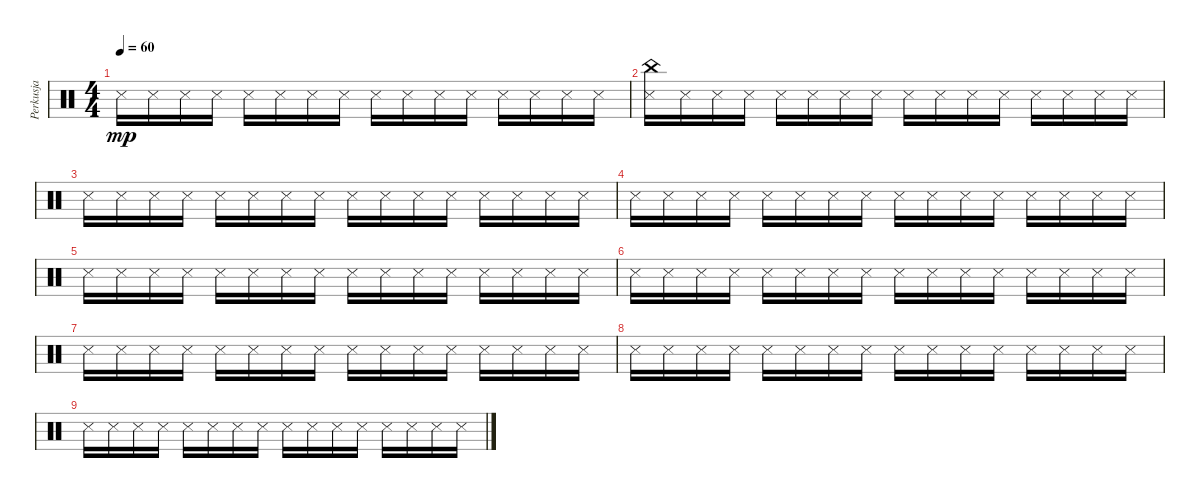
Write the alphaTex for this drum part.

\track ("Perkusja" "Perkusja") {instrument percussion}
\staff {score}
\articulation defaults
\ts (4 4)
\tempo 60
\clef neutral
\ks c "Metronome (hit)".16{dy mp} "Snare (side stick) 3".16 "Metronome (hit)".16 "Snare (side stick) 3".16 "Metronome (hit)".16 "Snare (side stick) 3".16 "Metronome (hit)".16 "Snare (side stick) 3".16 "Metronome (hit)".16 "Snare (side stick) 3".16 "Metronome (hit)".16 "Snare (side stick) 3".16 "Metronome (hit)".16 "Snare (side stick) 3".16 "Metronome (hit)".16 "Snare (side stick) 3".16
|
("Metronome (hit)" "China (hit)").16 "Snare (side stick) 3".16 "Metronome (hit)".16 "Snare (side stick) 3".16 "Metronome (hit)".16 "Snare (side stick) 3".16 "Metronome (hit)".16 "Snare (side stick) 3".16 "Metronome (hit)".16 "Snare (side stick) 3".16 "Metronome (hit)".16 "Snare (side stick) 3".16 "Metronome (hit)".16 "Snare (side stick) 3".16 "Metronome (hit)".16 "Snare (side stick) 3".16 |
"Metronome (hit)".16 "Snare (side stick) 3".16 "Metronome (hit)".16 "Snare (side stick) 3".16 "Metronome (hit)".16 "Snare (side stick) 3".16 "Metronome (hit)".16 "Snare (side stick) 3".16 "Metronome (hit)".16 "Snare (side stick) 3".16 "Metronome (hit)".16 "Snare (side stick) 3".16 "Metronome (hit)".16 "Snare (side stick) 3".16 "Metronome (hit)".16 "Snare (side stick) 3".16 |
"Metronome (hit)".16 "Snare (side stick) 3".16 "Metronome (hit)".16 "Snare (side stick) 3".16 "Metronome (hit)".16 "Snare (side stick) 3".16 "Metronome (hit)".16 "Snare (side stick) 3".16 "Metronome (hit)".16 "Snare (side stick) 3".16 "Metronome (hit)".16 "Snare (side stick) 3".16 "Metronome (hit)".16 "Snare (side stick) 3".16 "Metronome (hit)".16 "Snare (side stick) 3".16 |
"Metronome (hit)".16{volume 0} "Snare (side stick) 3".16 "Metronome (hit)".16 "Snare (side stick) 3".16 "Metronome (hit)".16 "Snare (side stick) 3".16 "Metronome (hit)".16 "Snare (side stick) 3".16 "Metronome (hit)".16 "Snare (side stick) 3".16 "Metronome (hit)".16 "Snare (side stick) 3".16 "Metronome (hit)".16 "Snare (side stick) 3".16 "Metronome (hit)".16 "Snare (side stick) 3".16 |
"Metronome (hit)".16 "Snare (side stick) 3".16 "Metronome (hit)".16 "Snare (side stick) 3".16 "Metronome (hit)".16 "Snare (side stick) 3".16 "Metronome (hit)".16 "Snare (side stick) 3".16 "Metronome (hit)".16 "Snare (side stick) 3".16 "Metronome (hit)".16 "Snare (side stick) 3".16 "Metronome (hit)".16 "Snare (side stick) 3".16 "Metronome (hit)".16 "Snare (side stick) 3".16 |
"Metronome (hit)".16 "Snare (side stick) 3".16 "Metronome (hit)".16 "Snare (side stick) 3".16 "Metronome (hit)".16 "Snare (side stick) 3".16 "Metronome (hit)".16 "Snare (side stick) 3".16 "Metronome (hit)".16 "Snare (side stick) 3".16 "Metronome (hit)".16 "Snare (side stick) 3".16 "Metronome (hit)".16 "Snare (side stick) 3".16 "Metronome (hit)".16 "Snare (side stick) 3".16 |
"Metronome (hit)".16 "Snare (side stick) 3".16 "Metronome (hit)".16 "Snare (side stick) 3".16 "Metronome (hit)".16 "Snare (side stick) 3".16 "Metronome (hit)".16 "Snare (side stick) 3".16 "Metronome (hit)".16 "Snare (side stick) 3".16 "Metronome (hit)".16 "Snare (side stick) 3".16 "Metronome (hit)".16 "Snare (side stick) 3".16 "Metronome (hit)".16 "Snare (side stick) 3".16 |
"Metronome (hit)".16 "Snare (side stick) 3".16 "Metronome (hit)".16 "Snare (side stick) 3".16 "Metronome (hit)".16 "Snare (side stick) 3".16 "Metronome (hit)".16 "Snare (side stick) 3".16 "Metronome (hit)".16 "Snare (side stick) 3".16 "Metronome (hit)".16 "Snare (side stick) 3".16 "Metronome (hit)".16 "Snare (side stick) 3".16 "Metronome (hit)".16 "Snare (side stick) 3".16
